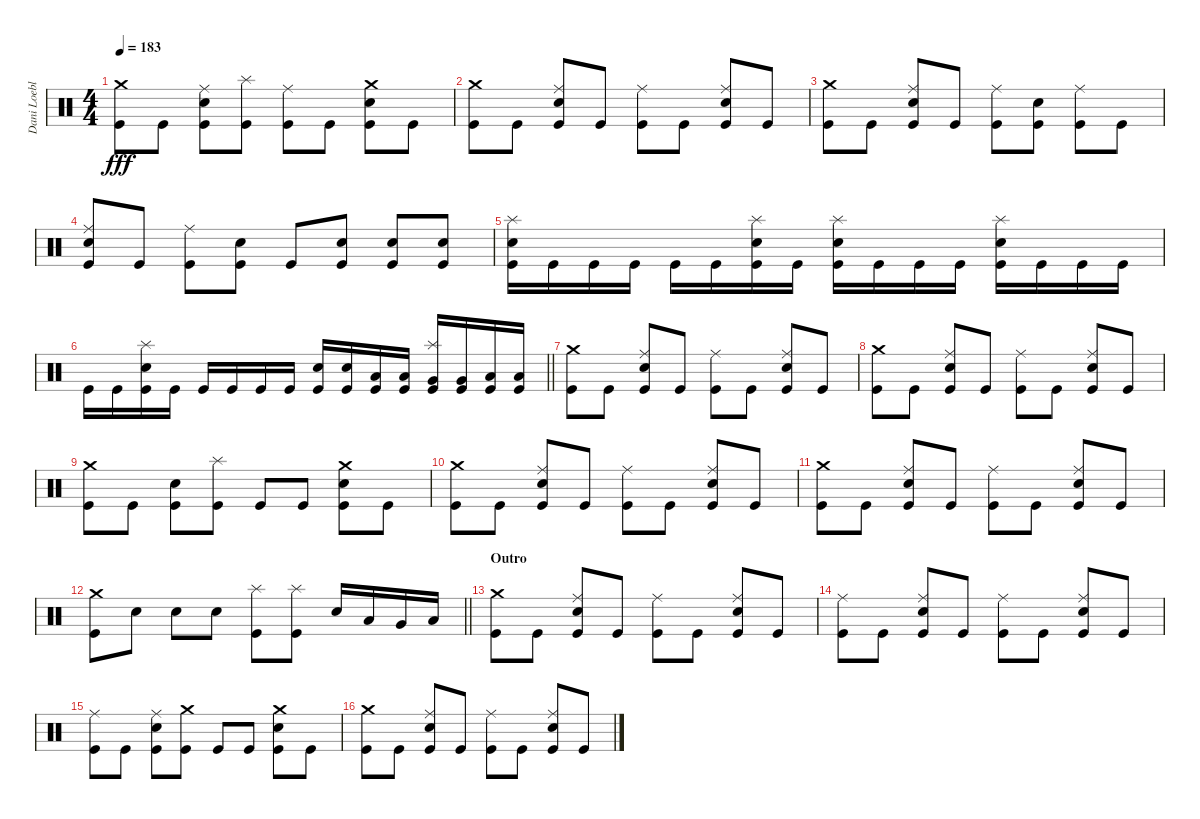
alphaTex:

\track ("Dani Loeble" "Dani Loebl") {instrument percussion}
\staff {score}
\articulation defaults
\ts (4 4)
\tempo 183
\clef neutral
\ks c
("Crash medium (hit)" "Kick (hit)").8{dy fff} "Kick (hit)".8 ("Ride (middle)" "Electric Snare (hit)" "Kick (hit)").8 ("Splash (hit)" "Kick (hit)").8 ("Ride (middle)" "Kick (hit)").8 "Kick (hit)".8 ("Crash medium (hit)" "Electric Snare (hit)" "Kick (hit)").8 "Kick (hit)".8 |
("Crash medium (hit)" "Kick (hit)").8 "Kick (hit)".8 ("Ride (middle)" "Electric Snare (hit)" "Kick (hit)").8 "Kick (hit)".8 ("Ride (middle)" "Kick (hit)").8 "Kick (hit)".8 ("Ride (middle)" "Electric Snare (hit)" "Kick (hit)").8 "Kick (hit)".8 |
("Crash medium (hit)" "Kick (hit)").8 "Kick (hit)".8 ("Ride (middle)" "Electric Snare (hit)" "Kick (hit)").8 "Kick (hit)".8 ("Ride (middle)" "Kick (hit)").8 ("Electric Snare (hit)" "Kick (hit)").8 ("Ride (middle)" "Kick (hit)").8 "Kick (hit)".8 |
("Ride (middle)" "Electric Snare (hit)" "Kick (hit)").8 "Kick (hit)".8 ("Ride (middle)" "Kick (hit)").8 ("Electric Snare (hit)" "Kick (hit)").8 "Kick (hit)".8 ("Electric Snare (hit)" "Kick (hit)").8 ("Electric Snare (hit)" "Kick (hit)").8 ("Electric Snare (hit)" "Kick (hit)").8 |
("Splash (hit)" "Electric Snare (hit)" "Kick (hit)").16 "Kick (hit)".16 "Kick (hit)".16 "Kick (hit)".16 "Kick (hit)".16 "Kick (hit)".16 ("Splash (hit)" "Electric Snare (hit)" "Kick (hit)").16 "Kick (hit)".16 ("Splash (hit)" "Electric Snare (hit)" "Kick (hit)").16 "Kick (hit)".16 "Kick (hit)".16 "Kick (hit)".16 ("Splash (hit)" "Electric Snare (hit)" "Kick (hit)").16 "Kick (hit)".16 "Kick (hit)".16 "Kick (hit)".16 |
\barLineRight lightlight "Kick (hit)".16 "Kick (hit)".16
("Splash (hit)" "Electric Snare (hit)" "Kick (hit)").16 "Kick (hit)".16 "Kick (hit)".16 "Kick (hit)".16 "Kick (hit)".16 "Kick (hit)".16 ("Electric Snare (hit)" "Kick (hit)").16 ("Electric Snare (hit)" "Kick (hit)").16 ("Low Tom (hit)" "Kick (hit)").16 ("Low Tom (hit)" "Kick (hit)").16 ("Splash (hit)" "Very Low Tom (hit)" "Kick (hit)").16 ("Very Low Tom (hit)" "Kick (hit)").16 ("Low Floor Tom (hit)" "Kick (hit)").16 ("Low Floor Tom (hit)" "Kick (hit)").16 |
("Crash medium (hit)" "Kick (hit)").8 "Kick (hit)".8 ("Ride (middle)" "Electric Snare (hit)" "Kick (hit)").8 "Kick (hit)".8 ("Ride (middle)" "Kick (hit)").8 "Kick (hit)".8 ("Ride (middle)" "Electric Snare (hit)" "Kick (hit)").8 "Kick (hit)".8 |
("Crash medium (hit)" "Kick (hit)").8 "Kick (hit)".8 ("Ride (middle)" "Electric Snare (hit)" "Kick (hit)").8 "Kick (hit)".8 ("Ride (middle)" "Kick (hit)").8 "Kick (hit)".8 ("Ride (middle)" "Electric Snare (hit)" "Kick (hit)").8 "Kick (hit)".8 |
("Crash medium (hit)" "Kick (hit)").8 "Kick (hit)".8 ("Electric Snare (hit)" "Kick (hit)").8 ("Splash (hit)" "Kick (hit)").8 "Kick (hit)".8 "Kick (hit)".8 ("Crash medium (hit)" "Electric Snare (hit)" "Kick (hit)").8 "Kick (hit)".8 |
("Crash medium (hit)" "Kick (hit)").8 "Kick (hit)".8 ("Ride (middle)" "Electric Snare (hit)" "Kick (hit)").8 "Kick (hit)".8 ("Ride (middle)" "Kick (hit)").8 "Kick (hit)".8 ("Ride (middle)" "Electric Snare (hit)" "Kick (hit)").8 "Kick (hit)".8 |
("Crash medium (hit)" "Kick (hit)").8 "Kick (hit)".8 ("Ride (middle)" "Electric Snare (hit)" "Kick (hit)").8 "Kick (hit)".8 ("Ride (middle)" "Kick (hit)").8 "Kick (hit)".8 ("Ride (middle)" "Electric Snare (hit)" "Kick (hit)").8 "Kick (hit)".8 |
\barLineRight lightlight
("Crash medium (hit)" "Kick (hit)").8 "Electric Snare (hit)".8 "Electric Snare (hit)".8 "Electric Snare (hit)".8 ("Splash (hit)" "Kick (hit)").8 ("Splash (hit)" "Kick (hit)").8 "Electric Snare (hit)".16 "Low Tom (hit)".16 "Very Low Tom (hit)".16 "Low Floor Tom (hit)".16 |
\section ("" "Outro")
("Crash medium (hit)" "Kick (hit)").8 "Kick (hit)".8 ("Ride (middle)" "Electric Snare (hit)" "Kick (hit)").8 "Kick (hit)".8 ("Ride (middle)" "Kick (hit)").8 "Kick (hit)".8 ("Ride (middle)" "Electric Snare (hit)" "Kick (hit)").8 "Kick (hit)".8 |
("Ride (middle)" "Kick (hit)").8 "Kick (hit)".8 ("Ride (middle)" "Electric Snare (hit)" "Kick (hit)").8 "Kick (hit)".8 ("Ride (middle)" "Kick (hit)").8 "Kick (hit)".8 ("Ride (middle)" "Electric Snare (hit)" "Kick (hit)").8 "Kick (hit)".8 |
("Ride (middle)" "Kick (hit)").8 "Kick (hit)".8 ("Ride (middle)" "Electric Snare (hit)" "Kick (hit)").8 ("Crash medium (hit)" "Kick (hit)").8 "Kick (hit)".8 "Kick (hit)".8 ("Crash medium (hit)" "Electric Snare (hit)" "Kick (hit)").8 "Kick (hit)".8 |
("Crash medium (hit)" "Kick (hit)").8 "Kick (hit)".8 ("Ride (middle)" "Electric Snare (hit)" "Kick (hit)").8 "Kick (hit)".8 ("Ride (middle)" "Kick (hit)").8 "Kick (hit)".8 ("Ride (middle)" "Electric Snare (hit)" "Kick (hit)").8 "Kick (hit)".8
